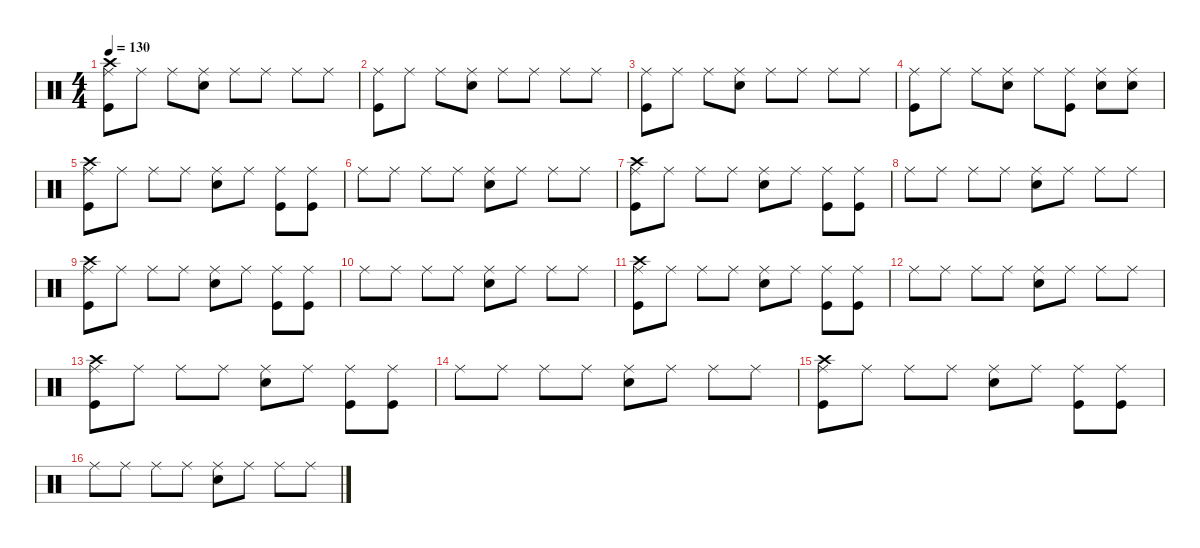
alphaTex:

\defaultSystemsLayout 4
\hideDynamics
\bracketExtendMode nobrackets
\singleTrackTrackNamePolicy hidden
\multiTrackTrackNamePolicy hidden
\firstSystemTrackNameMode fullname
\firstSystemTrackNameOrientation horizontal
\otherSystemsTrackNameOrientation horizontal
\track ("Percussion" "drm.") {defaultSystemsLayout 2 instrument percussion}
\staff {score}
\articulation defaults
\ts (4 4)
\tempo 130
\clef neutral
\ks c
("Crash high (hit)" "Ride (middle)" "Kick (hit)").8{dy f beam Down} "Ride (middle)".8{beam Down} "Ride (middle)".8{beam Down} ("Ride (middle)" "Snare (hit) 2").8{beam Down} "Ride (middle)".8{beam Down} "Ride (middle)".8{beam Down} "Ride (middle)".8{beam Down} "Ride (middle)".8{beam Down} |
("Ride (middle)" "Kick (hit)").8{beam Down} "Ride (middle)".8{beam Down} "Ride (middle)".8{beam Down} ("Ride (middle)" "Snare (hit) 2").8{beam Down} "Ride (middle)".8{beam Down} "Ride (middle)".8{beam Down} "Ride (middle)".8{beam Down} "Ride (middle)".8{beam Down} |
("Ride (middle)" "Kick (hit)").8{beam Down} "Ride (middle)".8{beam Down} "Ride (middle)".8{beam Down} ("Ride (middle)" "Snare (hit) 2").8{beam Down} "Ride (middle)".8{beam Down} "Ride (middle)".8{beam Down} "Ride (middle)".8{beam Down} "Ride (middle)".8{beam Down} |
("Ride (middle)" "Kick (hit)").8{beam Down} "Ride (middle)".8{beam Down} "Ride (middle)".8{beam Down} ("Ride (middle)" "Snare (hit) 2").8{beam Down} "Ride (middle)".8{beam Down} ("Ride (middle)" "Kick (hit)").8{beam Down} ("Ride (middle)" "Snare (hit) 2").8{beam Down} ("Ride (middle)" "Snare (hit) 2").8{beam Down} |
("Crash high (hit)" "Ride (middle)" "Kick (hit)").8{beam Down} "Ride (middle)".8{beam Down} "Ride (middle)".8{beam Down} "Ride (middle)".8{beam Down} ("Ride (middle)" "Snare (hit) 2").8{beam Down} "Ride (middle)".8{beam Down} ("Ride (middle)" "Kick (hit)").8{beam Down} ("Ride (middle)" "Kick (hit)").8{beam Down} |
"Ride (middle)".8{beam Down} "Ride (middle)".8{beam Down} "Ride (middle)".8{beam Down} "Ride (middle)".8{beam Down} ("Ride (middle)" "Snare (hit) 2").8{beam Down} "Ride (middle)".8{beam Down} "Ride (middle)".8{beam Down} "Ride (middle)".8{beam Down} |
("Crash high (hit)" "Ride (middle)" "Kick (hit)").8{beam Down} "Ride (middle)".8{beam Down} "Ride (middle)".8{beam Down} "Ride (middle)".8{beam Down} ("Ride (middle)" "Snare (hit) 2").8{beam Down} "Ride (middle)".8{beam Down} ("Ride (middle)" "Kick (hit)").8{beam Down} ("Ride (middle)" "Kick (hit)").8{beam Down} |
"Ride (middle)".8{beam Down} "Ride (middle)".8{beam Down} "Ride (middle)".8{beam Down} "Ride (middle)".8{beam Down} ("Ride (middle)" "Snare (hit) 2").8{beam Down} "Ride (middle)".8{beam Down} "Ride (middle)".8{beam Down} "Ride (middle)".8{beam Down} |
("Crash high (hit)" "Ride (middle)" "Kick (hit)").8{beam Down} "Ride (middle)".8{beam Down} "Ride (middle)".8{beam Down} "Ride (middle)".8{beam Down} ("Ride (middle)" "Snare (hit) 2").8{beam Down} "Ride (middle)".8{beam Down} ("Ride (middle)" "Kick (hit)").8{beam Down} ("Ride (middle)" "Kick (hit)").8{beam Down} |
"Ride (middle)".8{beam Down} "Ride (middle)".8{beam Down} "Ride (middle)".8{beam Down} "Ride (middle)".8{beam Down} ("Ride (middle)" "Snare (hit) 2").8{beam Down} "Ride (middle)".8{beam Down} "Ride (middle)".8{beam Down} "Ride (middle)".8{beam Down} |
("Crash high (hit)" "Ride (middle)" "Kick (hit)").8{beam Down} "Ride (middle)".8{beam Down} "Ride (middle)".8{beam Down} "Ride (middle)".8{beam Down} ("Ride (middle)" "Snare (hit) 2").8{beam Down} "Ride (middle)".8{beam Down} ("Ride (middle)" "Kick (hit)").8{beam Down} ("Ride (middle)" "Kick (hit)").8{beam Down} |
"Ride (middle)".8{beam Down} "Ride (middle)".8{beam Down} "Ride (middle)".8{beam Down} "Ride (middle)".8{beam Down} ("Ride (middle)" "Snare (hit) 2").8{beam Down} "Ride (middle)".8{beam Down} "Ride (middle)".8{beam Down} "Ride (middle)".8{beam Down} |
("Crash high (hit)" "Ride (middle)" "Kick (hit)").8{beam Down} "Ride (middle)".8{beam Down} "Ride (middle)".8{beam Down} "Ride (middle)".8{beam Down} ("Ride (middle)" "Snare (hit) 2").8{beam Down} "Ride (middle)".8{beam Down} ("Ride (middle)" "Kick (hit)").8{beam Down} ("Ride (middle)" "Kick (hit)").8{beam Down} |
"Ride (middle)".8{beam Down} "Ride (middle)".8{beam Down} "Ride (middle)".8{beam Down} "Ride (middle)".8{beam Down} ("Ride (middle)" "Snare (hit) 2").8{beam Down} "Ride (middle)".8{beam Down} "Ride (middle)".8{beam Down} "Ride (middle)".8{beam Down} |
("Crash high (hit)" "Ride (middle)" "Kick (hit)").8{beam Down} "Ride (middle)".8{beam Down} "Ride (middle)".8{beam Down} "Ride (middle)".8{beam Down} ("Ride (middle)" "Snare (hit) 2").8{beam Down} "Ride (middle)".8{beam Down} ("Ride (middle)" "Kick (hit)").8{beam Down} ("Ride (middle)" "Kick (hit)").8{beam Down} |
"Ride (middle)".8{beam Down} "Ride (middle)".8{beam Down} "Ride (middle)".8{beam Down} "Ride (middle)".8{beam Down} ("Ride (middle)" "Snare (hit) 2").8{beam Down} "Ride (middle)".8{beam Down} "Ride (middle)".8{beam Down} "Ride (middle)".8{beam Down}
